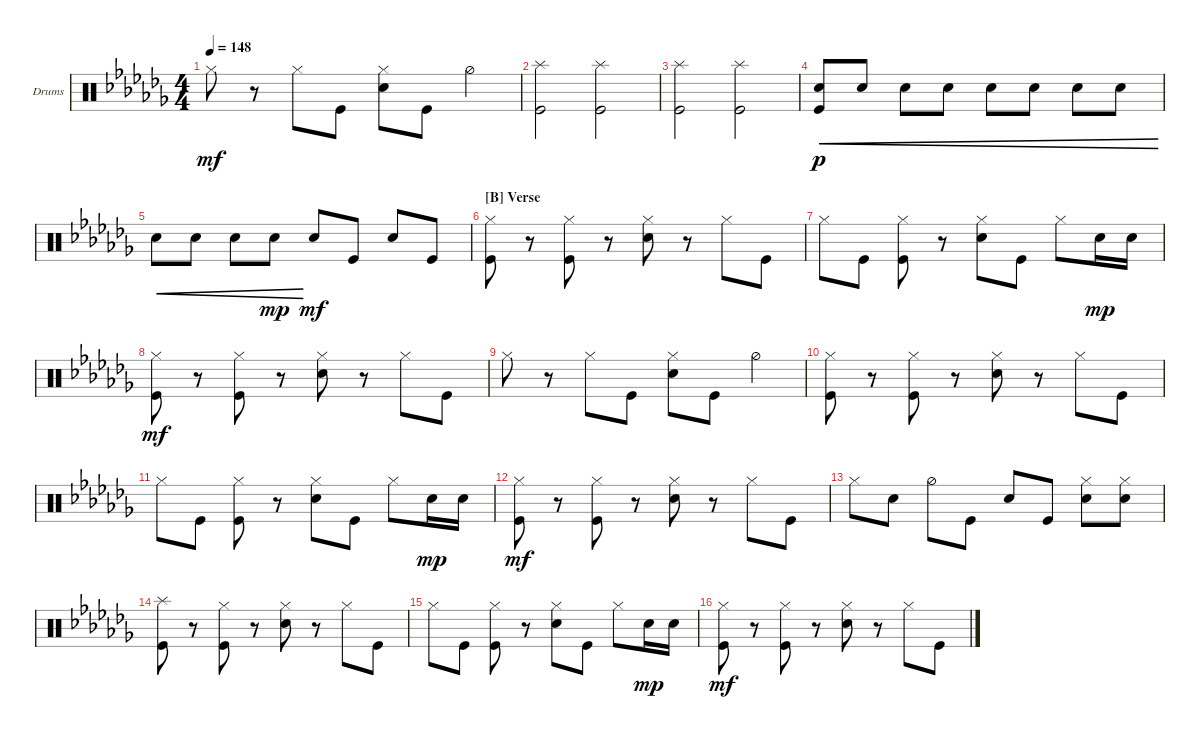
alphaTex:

\defaultSystemsLayout 4
\bracketExtendMode groupsimilarinstruments
\firstSystemTrackNameOrientation horizontal
\otherSystemsTrackNameOrientation horizontal
\track ("Drumkit" "Drums") {instrument percussion}
\staff {score}
\articulation defaults
\ts (4 4)
\tempo 148
\clef neutral
\ks abminor "Hi-Hat (closed)".8{dy mf}
r.8 "Hi-Hat (closed)".8 "Kick (hit)".8 ("Snare (hit) 2" "Hi-Hat (closed)").8 "Kick (hit)".8 "Hi-Hat (half)".4 |
("Kick (hit)" "Splash (hit)").2 ("Kick (hit)" "Splash (hit)").2 |
("Kick (hit)" "Splash (hit)").2 ("Kick (hit)" "Splash (hit)").2 |
("Kick (hit)" "Snare (hit) 2").8{cre dy p} "Snare (hit) 2".8{cre} "Snare (hit) 2".8{cre} "Snare (hit) 2".8{cre} "Snare (hit) 2".8{cre} "Snare (hit) 2".8{cre} "Snare (hit) 2".8{cre} "Snare (hit) 2".8{cre} |
"Snare (hit) 2".8{cre} "Snare (hit) 2".8{cre} "Snare (hit) 2".8{cre} "Snare (hit) 2".8{cre dy mp} "Snare (hit) 2".8{dy mf} "Kick (hit)".8 "Snare (hit) 2".8 "Kick (hit)".8 |
\section ("B" "Verse")
("Kick (hit)" "Hi-Hat (closed)").8 r.8 ("Kick (hit)" "Hi-Hat (closed)").8 r.8 ("Snare (hit) 2" "Hi-Hat (closed)").8 r.8 "Hi-Hat (closed)".8 "Kick (hit)".8 |
"Hi-Hat (closed)".8 "Kick (hit)".8 ("Kick (hit)" "Hi-Hat (closed)").8 r.8 ("Snare (hit) 2" "Hi-Hat (closed)").8 "Kick (hit)".8 "Hi-Hat (closed)".8 "Snare (hit) 2".16{dy mp} "Snare (hit) 2".16 |
("Kick (hit)" "Hi-Hat (closed)").8{dy mf} r.8 ("Kick (hit)" "Hi-Hat (closed)").8 r.8 ("Snare (hit) 2" "Hi-Hat (closed)").8 r.8 "Hi-Hat (closed)".8 "Kick (hit)".8 |
"Hi-Hat (closed)".8 r.8 "Hi-Hat (closed)".8 "Kick (hit)".8 ("Snare (hit) 2" "Hi-Hat (closed)").8 "Kick (hit)".8 "Hi-Hat (half)".4 |
("Kick (hit)" "Hi-Hat (closed)").8 r.8 ("Kick (hit)" "Hi-Hat (closed)").8 r.8 ("Snare (hit) 2" "Hi-Hat (closed)").8 r.8 "Hi-Hat (closed)".8 "Kick (hit)".8 |
"Hi-Hat (closed)".8 "Kick (hit)".8 ("Kick (hit)" "Hi-Hat (closed)").8 r.8 ("Snare (hit) 2" "Hi-Hat (closed)").8 "Kick (hit)".8 "Hi-Hat (closed)".8 "Snare (hit) 2".16{dy mp} "Snare (hit) 2".16 |
("Kick (hit)" "Hi-Hat (closed)").8{dy mf} r.8 ("Kick (hit)" "Hi-Hat (closed)").8 r.8 ("Snare (hit) 2" "Hi-Hat (closed)").8 r.8 "Hi-Hat (closed)".8 "Kick (hit)".8 |
"Hi-Hat (closed)".8 "Snare (hit) 2".8 "Hi-Hat (half)".8 "Kick (hit)".8 "Snare (hit) 2".8 "Kick (hit)".8 ("Snare (hit) 2" "Hi-Hat (closed)").8 ("Snare (hit) 2" "Hi-Hat (closed)").8 |
("Kick (hit)" "Splash (hit)").8 r.8 ("Kick (hit)" "Hi-Hat (closed)").8 r.8 ("Snare (hit) 2" "Hi-Hat (closed)").8 r.8 "Hi-Hat (closed)".8 "Kick (hit)".8 |
"Hi-Hat (closed)".8 "Kick (hit)".8 ("Kick (hit)" "Hi-Hat (closed)").8 r.8 ("Snare (hit) 2" "Hi-Hat (closed)").8 "Kick (hit)".8 "Hi-Hat (closed)".8 "Snare (hit) 2".16{dy mp} "Snare (hit) 2".16 |
("Kick (hit)" "Hi-Hat (closed)").8{dy mf} r.8 ("Kick (hit)" "Hi-Hat (closed)").8 r.8 ("Snare (hit) 2" "Hi-Hat (closed)").8 r.8 "Hi-Hat (closed)".8 "Kick (hit)".8
